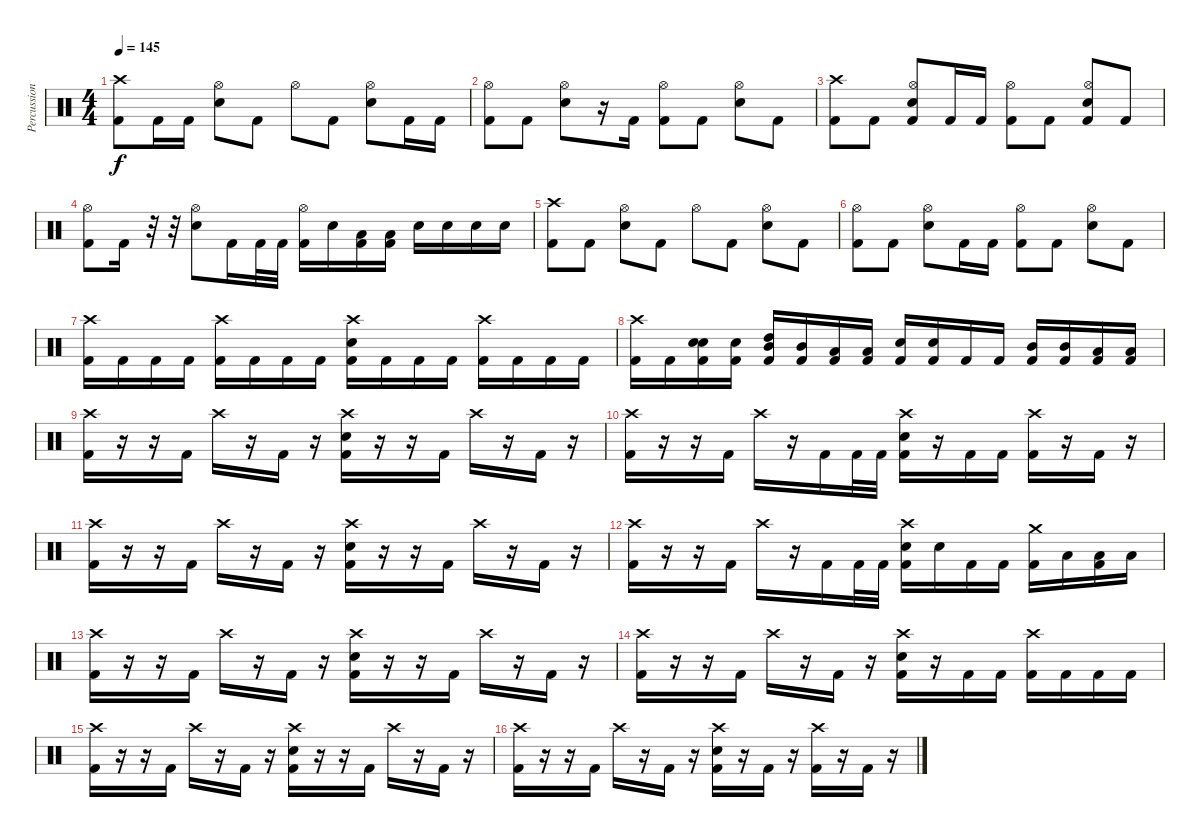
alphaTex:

\track ("Percussion" "Percussion") {instrument percussion}
\staff {score}
\articulation defaults
\ts (4 4)
\tempo 145
\clef neutral
\ks c
("Crash high (hit)" "Kick (hit) 2").8{dy f} "Kick (hit) 2".16 "Kick (hit) 2".16 ("Hi-Hat (open)" "Electric Snare (hit)").8 "Kick (hit) 2".8 "Hi-Hat (open)".8 "Kick (hit) 2".8 ("Hi-Hat (open)" "Electric Snare (hit)").8 "Kick (hit) 2".16 "Kick (hit) 2".16 |
("Hi-Hat (open)" "Kick (hit) 2").8 "Kick (hit) 2".8 ("Hi-Hat (open)" "Electric Snare (hit)").8 r.16 "Kick (hit) 2".16 ("Hi-Hat (open)" "Kick (hit) 2").8 "Kick (hit) 2".8 ("Hi-Hat (open)" "Electric Snare (hit)").8 "Kick (hit) 2".8 |
("Crash high (hit)" "Kick (hit) 2").8 "Kick (hit) 2".8 ("Hi-Hat (open)" "Electric Snare (hit)" "Kick (hit) 2").8 "Kick (hit) 2".16 "Kick (hit) 2".16 ("Hi-Hat (open)" "Kick (hit) 2").8 "Kick (hit) 2".8 ("Hi-Hat (open)" "Electric Snare (hit)" "Kick (hit) 2").8 "Kick (hit) 2".8 |
("Hi-Hat (open)" "Kick (hit) 2").8 "Kick (hit) 2".16 r.32 r.32 ("Hi-Hat (open)" "Electric Snare (hit)").8 "Kick (hit) 2".16 "Kick (hit) 2".32 "Kick (hit) 2".32 ("Hi-Hat (open)" "Kick (hit) 2").16 "Electric Snare (hit)".16 ("Low Tom (hit)" "Kick (hit) 2").16 ("Low Tom (hit)" "Kick (hit) 2").16 "Electric Snare (hit)".16 "Electric Snare (hit)".16 "Electric Snare (hit)".16 "Electric Snare (hit)".16 |
("Crash high (hit)" "Kick (hit) 2").8 "Kick (hit) 2".8 ("Hi-Hat (open)" "Electric Snare (hit)").8 "Kick (hit) 2".8 "Hi-Hat (open)".8 "Kick (hit) 2".8 ("Hi-Hat (open)" "Electric Snare (hit)").8 "Kick (hit) 2".8 |
("Hi-Hat (open)" "Kick (hit) 2").8 "Kick (hit) 2".8 ("Hi-Hat (open)" "Electric Snare (hit)").8 "Kick (hit) 2".16 "Kick (hit) 2".16 ("Hi-Hat (open)" "Kick (hit) 2").8 "Kick (hit) 2".8 ("Hi-Hat (open)" "Electric Snare (hit)").8 "Kick (hit) 2".8 |
("Crash high (hit)" "Kick (hit) 2").16 "Kick (hit) 2".16 "Kick (hit) 2".16 "Kick (hit) 2".16 ("Crash high (hit)" "Kick (hit) 2").16 "Kick (hit) 2".16 "Kick (hit) 2".16 "Kick (hit) 2".16 ("Crash high (hit)" "Electric Snare (hit)" "Kick (hit) 2").16 "Kick (hit) 2".16 "Kick (hit) 2".16 "Kick (hit) 2".16 ("Crash high (hit)" "Kick (hit) 2").16 "Kick (hit) 2".16 "Kick (hit) 2".16 "Kick (hit) 2".16 |
("Crash high (hit)" "Kick (hit) 2").16 "Kick (hit) 2".16 ("Electric Snare (hit)" "Electric Snare (hit)" "Kick (hit) 2").16 ("Electric Snare (hit)" "Kick (hit) 2").16 ("Mid Tom (hit)" "High Tom (hit)" "Kick (hit) 2").16 ("Mid Tom (hit)" "Kick (hit) 2").16 ("Low Tom (hit)" "Kick (hit) 2").16 ("Low Tom (hit)" "Kick (hit) 2").16 ("Electric Snare (hit)" "Kick (hit) 2").16 ("Electric Snare (hit)" "Kick (hit) 2").16 "Kick (hit) 2".16 "Kick (hit) 2".16 ("Mid Tom (hit)" "Kick (hit) 2").16 ("Mid Tom (hit)" "Kick (hit) 2").16 ("Low Tom (hit)" "Kick (hit) 2").16 ("Low Tom (hit)" "Kick (hit) 2").16 |
("Crash high (hit)" "Kick (hit) 2").16 r.16 r.16 "Kick (hit) 2".16 "Crash high (hit)".16 r.16 "Kick (hit) 2".16 r.16 ("Crash high (hit)" "Electric Snare (hit)" "Kick (hit) 2").16 r.16 r.16 "Kick (hit) 2".16 "Crash high (hit)".16 r.16 "Kick (hit) 2".16 r.16 |
("Crash high (hit)" "Kick (hit) 2").16 r.16 r.16 "Kick (hit) 2".16 "Crash high (hit)".16 r.16 "Kick (hit) 2".16 "Kick (hit) 2".32 "Kick (hit) 2".32 ("Crash high (hit)" "Electric Snare (hit)" "Kick (hit) 2").16 r.16 "Kick (hit) 2".16 "Kick (hit) 2".16 ("Crash high (hit)" "Kick (hit) 2").16 r.16 "Kick (hit) 2".16 r.16 |
("Crash high (hit)" "Kick (hit) 2").16 r.16 r.16 "Kick (hit) 2".16 "Crash high (hit)".16 r.16 "Kick (hit) 2".16 r.16 ("Crash high (hit)" "Electric Snare (hit)" "Kick (hit) 2").16 r.16 r.16 "Kick (hit) 2".16 "Crash high (hit)".16 r.16 "Kick (hit) 2".16 r.16 |
("Crash high (hit)" "Kick (hit) 2").16 r.16 r.16 "Kick (hit) 2".16 "Crash high (hit)".16 r.16 "Kick (hit) 2".16 "Kick (hit) 2".32 "Kick (hit) 2".32 ("Crash high (hit)" "Electric Snare (hit)" "Kick (hit) 2").16 "Electric Snare (hit)".16 "Kick (hit) 2".16 "Kick (hit) 2".16 ("Crash medium (hit)" "Kick (hit) 2").16 "Low Tom (hit)".16 ("Low Tom (hit)" "Kick (hit) 2").16 "Low Tom (hit)".16 |
("Crash high (hit)" "Kick (hit) 2").16 r.16 r.16 "Kick (hit) 2".16 "Crash high (hit)".16 r.16 "Kick (hit) 2".16 r.16 ("Crash high (hit)" "Electric Snare (hit)" "Kick (hit) 2").16 r.16 r.16 "Kick (hit) 2".16 "Crash high (hit)".16 r.16 "Kick (hit) 2".16 r.16 |
("Crash high (hit)" "Kick (hit) 2").16 r.16 r.16 "Kick (hit) 2".16 "Crash high (hit)".16 r.16 "Kick (hit) 2".16 r.16 ("Crash high (hit)" "Electric Snare (hit)" "Kick (hit) 2").16 r.16 "Kick (hit) 2".16 "Kick (hit) 2".16 ("Crash high (hit)" "Kick (hit) 2").16 "Kick (hit) 2".16 "Kick (hit) 2".16 "Kick (hit) 2".16 |
("Crash high (hit)" "Kick (hit) 2").16 r.16 r.16 "Kick (hit) 2".16 "Crash high (hit)".16 r.16 "Kick (hit) 2".16 r.16 ("Crash high (hit)" "Electric Snare (hit)" "Kick (hit) 2").16 r.16 r.16 "Kick (hit) 2".16 "Crash high (hit)".16 r.16 "Kick (hit) 2".16 r.16 |
("Crash high (hit)" "Kick (hit) 2").16 r.16 r.16 "Kick (hit) 2".16 "Crash high (hit)".16 r.16 "Kick (hit) 2".16 r.16 ("Crash high (hit)" "Electric Snare (hit)" "Kick (hit) 2").16 r.16 "Kick (hit) 2".16 r.16 ("Crash high (hit)" "Kick (hit) 2").16 r.16 "Kick (hit) 2".16 r.16
